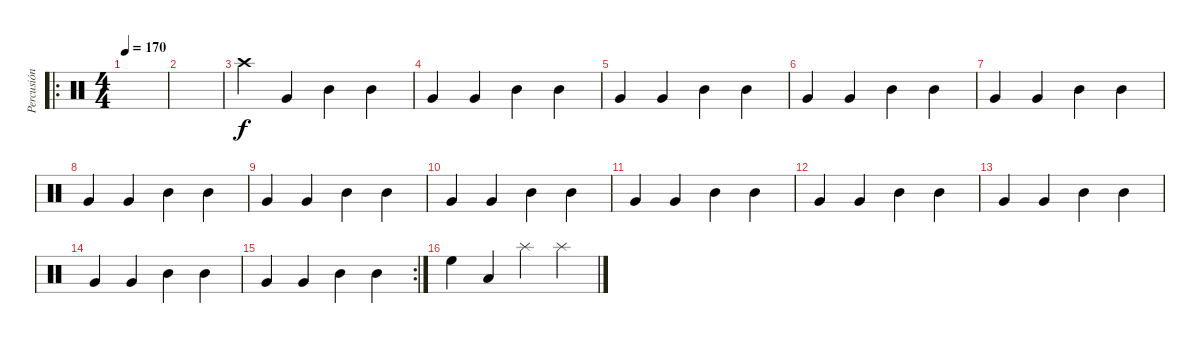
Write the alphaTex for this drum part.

\track ("Percusión" "Percusión") {instrument percussion}
\staff {score}
\articulation defaults
\ro
\ts (4 4)
\tempo 170
\clef neutral
\ks c
|
|
"Crash high (hit)".4 "Very Low Tom (hit)".4 "Mid Tom (hit)".4 "Mid Tom (hit)".4 |
"Very Low Tom (hit)".4 "Very Low Tom (hit)".4 "Mid Tom (hit)".4 "Mid Tom (hit)".4 |
"Very Low Tom (hit)".4 "Very Low Tom (hit)".4 "Mid Tom (hit)".4 "Mid Tom (hit)".4 |
"Very Low Tom (hit)".4 "Very Low Tom (hit)".4 "Mid Tom (hit)".4 "Mid Tom (hit)".4 |
"Very Low Tom (hit)".4 "Very Low Tom (hit)".4 "Mid Tom (hit)".4 "Mid Tom (hit)".4 |
"Very Low Tom (hit)".4 "Very Low Tom (hit)".4 "Mid Tom (hit)".4 "Mid Tom (hit)".4 |
"Very Low Tom (hit)".4 "Very Low Tom (hit)".4 "Mid Tom (hit)".4 "Mid Tom (hit)".4 |
"Very Low Tom (hit)".4 "Very Low Tom (hit)".4 "Mid Tom (hit)".4 "Mid Tom (hit)".4 |
"Very Low Tom (hit)".4 "Very Low Tom (hit)".4 "Mid Tom (hit)".4 "Mid Tom (hit)".4 |
"Very Low Tom (hit)".4 "Very Low Tom (hit)".4 "Mid Tom (hit)".4 "Mid Tom (hit)".4 |
"Very Low Tom (hit)".4 "Very Low Tom (hit)".4 "Mid Tom (hit)".4 "Mid Tom (hit)".4 |
"Very Low Tom (hit)".4 "Very Low Tom (hit)".4 "Mid Tom (hit)".4 "Mid Tom (hit)".4 |
\rc 2 "Very Low Tom (hit)".4 "Very Low Tom (hit)".4 "Mid Tom (hit)".4 "Mid Tom (hit)".4
|
"High Floor Tom (hit)".4 "Low Tom (hit)".4 "Splash (hit)".4 "Splash (hit)".4
